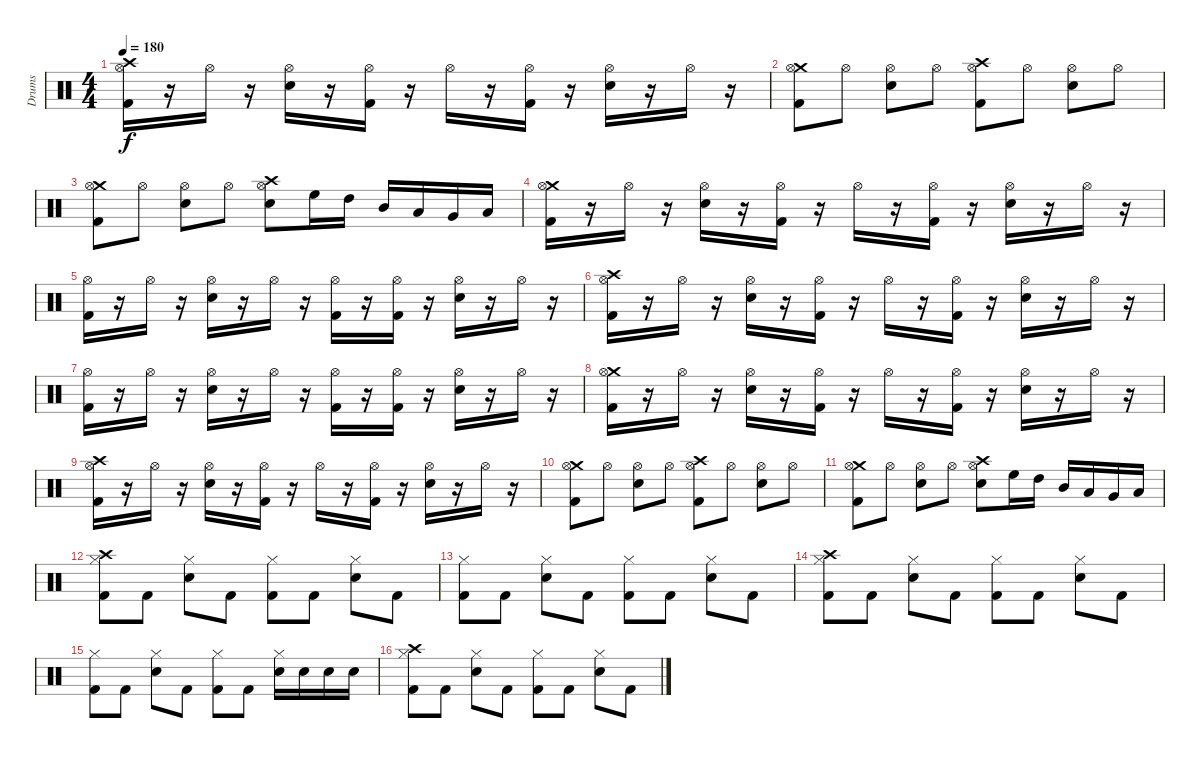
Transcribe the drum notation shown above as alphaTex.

\track ("Drums" "Drums") {instrument percussion}
\staff {score}
\articulation defaults
\ts (4 4)
\tempo 180
\clef neutral
\ks c
("Crash high (hit)" "Hi-Hat (open)" "Kick (hit) 2").16{dy f} r.16 "Hi-Hat (open)".16 r.16 ("Hi-Hat (open)" "Electric Snare (hit)").16 r.16 ("Hi-Hat (open)" "Kick (hit) 2").16 r.16 "Hi-Hat (open)".16 r.16 ("Hi-Hat (open)" "Kick (hit) 2").16 r.16 ("Hi-Hat (open)" "Electric Snare (hit)").16 r.16 "Hi-Hat (open)".16 r.16 |
("Crash medium (hit)" "Hi-Hat (open)" "Kick (hit) 2").8 "Hi-Hat (open)".8 ("Hi-Hat (open)" "Electric Snare (hit)").8 "Hi-Hat (open)".8 ("Crash high (hit)" "Hi-Hat (open)" "Kick (hit) 2").8 "Hi-Hat (open)".8 ("Hi-Hat (open)" "Electric Snare (hit)").8 "Hi-Hat (open)".8 |
("Crash medium (hit)" "Hi-Hat (open)" "Kick (hit) 2").8 "Hi-Hat (open)".8 ("Hi-Hat (open)" "Electric Snare (hit)").8 "Hi-Hat (open)".8 ("Crash high (hit)" "Hi-Hat (open)" "Electric Snare (hit)").8 "High Floor Tom (hit)".16 "High Tom (hit)".16 "Mid Tom (hit)".16 "Low Tom (hit)".16 "Very Low Tom (hit)".16 "Low Floor Tom (hit)".16 |
("Crash medium (hit)" "Hi-Hat (open)" "Kick (hit) 2").16 r.16 "Hi-Hat (open)".16 r.16 ("Hi-Hat (open)" "Electric Snare (hit)").16 r.16 ("Hi-Hat (open)" "Kick (hit) 2").16 r.16 "Hi-Hat (open)".16 r.16 ("Hi-Hat (open)" "Kick (hit) 2").16 r.16 ("Hi-Hat (open)" "Electric Snare (hit)").16 r.16 "Hi-Hat (open)".16 r.16 |
("Hi-Hat (open)" "Kick (hit) 2").16 r.16 "Hi-Hat (open)".16 r.16 ("Hi-Hat (open)" "Electric Snare (hit)").16 r.16 "Hi-Hat (open)".16 r.16 ("Hi-Hat (open)" "Kick (hit) 2").16 r.16 ("Hi-Hat (open)" "Kick (hit) 2").16 r.16 ("Hi-Hat (open)" "Electric Snare (hit)").16 r.16 "Hi-Hat (open)".16 r.16 |
("Crash high (hit)" "Hi-Hat (open)" "Kick (hit) 2").16 r.16 "Hi-Hat (open)".16 r.16 ("Hi-Hat (open)" "Electric Snare (hit)").16 r.16 ("Hi-Hat (open)" "Kick (hit) 2").16 r.16 "Hi-Hat (open)".16 r.16 ("Hi-Hat (open)" "Kick (hit) 2").16 r.16 ("Hi-Hat (open)" "Electric Snare (hit)").16 r.16 "Hi-Hat (open)".16 r.16 |
("Hi-Hat (open)" "Kick (hit) 2").16 r.16 "Hi-Hat (open)".16 r.16 ("Hi-Hat (open)" "Electric Snare (hit)").16 r.16 "Hi-Hat (open)".16 r.16 ("Hi-Hat (open)" "Kick (hit) 2").16 r.16 ("Hi-Hat (open)" "Kick (hit) 2").16 r.16 ("Hi-Hat (open)" "Electric Snare (hit)").16 r.16 "Hi-Hat (open)".16 r.16 |
("Crash medium (hit)" "Hi-Hat (open)" "Kick (hit) 2").16 r.16 "Hi-Hat (open)".16 r.16 ("Hi-Hat (open)" "Electric Snare (hit)").16 r.16 ("Hi-Hat (open)" "Kick (hit) 2").16 r.16 "Hi-Hat (open)".16 r.16 ("Hi-Hat (open)" "Kick (hit) 2").16 r.16 ("Hi-Hat (open)" "Electric Snare (hit)").16 r.16 "Hi-Hat (open)".16 r.16 |
("Crash high (hit)" "Hi-Hat (open)" "Kick (hit) 2").16 r.16 "Hi-Hat (open)".16 r.16 ("Hi-Hat (open)" "Electric Snare (hit)").16 r.16 ("Hi-Hat (open)" "Kick (hit) 2").16 r.16 "Hi-Hat (open)".16 r.16 ("Hi-Hat (open)" "Kick (hit) 2").16 r.16 ("Hi-Hat (open)" "Electric Snare (hit)").16 r.16 "Hi-Hat (open)".16 r.16 |
("Crash medium (hit)" "Hi-Hat (open)" "Kick (hit) 2").8 "Hi-Hat (open)".8 ("Hi-Hat (open)" "Electric Snare (hit)").8 "Hi-Hat (open)".8 ("Crash high (hit)" "Hi-Hat (open)" "Kick (hit) 2").8 "Hi-Hat (open)".8 ("Hi-Hat (open)" "Electric Snare (hit)").8 "Hi-Hat (open)".8 |
("Crash medium (hit)" "Hi-Hat (open)" "Kick (hit) 2").8 "Hi-Hat (open)".8 ("Hi-Hat (open)" "Electric Snare (hit)").8 "Hi-Hat (open)".8 ("Crash high (hit)" "Hi-Hat (open)" "Electric Snare (hit)").8 "High Floor Tom (hit)".16 "High Tom (hit)".16 "Mid Tom (hit)".16 "Low Tom (hit)".16 "Very Low Tom (hit)".16 "Low Floor Tom (hit)".16 |
("Crash high (hit)" "Hi-Hat (closed)" "Kick (hit) 2").8 "Kick (hit) 2".8 ("Hi-Hat (closed)" "Electric Snare (hit)").8 "Kick (hit) 2".8 ("Hi-Hat (closed)" "Kick (hit) 2").8 "Kick (hit) 2".8 ("Hi-Hat (closed)" "Electric Snare (hit)").8 "Kick (hit) 2".8 |
("Hi-Hat (closed)" "Kick (hit) 2").8 "Kick (hit) 2".8 ("Hi-Hat (closed)" "Electric Snare (hit)").8 "Kick (hit) 2".8 ("Hi-Hat (closed)" "Kick (hit) 2").8 "Kick (hit) 2".8 ("Hi-Hat (closed)" "Electric Snare (hit)").8 "Kick (hit) 2".8 |
("Crash high (hit)" "Hi-Hat (closed)" "Kick (hit) 2").8 "Kick (hit) 2".8 ("Hi-Hat (closed)" "Electric Snare (hit)").8 "Kick (hit) 2".8 ("Hi-Hat (closed)" "Kick (hit) 2").8 "Kick (hit) 2".8 ("Hi-Hat (closed)" "Electric Snare (hit)").8 "Kick (hit) 2".8 |
("Hi-Hat (closed)" "Kick (hit) 2").8 "Kick (hit) 2".8 ("Hi-Hat (closed)" "Electric Snare (hit)").8 "Kick (hit) 2".8 ("Hi-Hat (closed)" "Kick (hit) 2").8 "Kick (hit) 2".8 ("Hi-Hat (closed)" "Electric Snare (hit)").16 "Electric Snare (hit)".16 "Electric Snare (hit)".16 "Electric Snare (hit)".16 |
("Crash high (hit)" "Hi-Hat (closed)" "Kick (hit) 2").8 "Kick (hit) 2".8 ("Hi-Hat (closed)" "Electric Snare (hit)").8 "Kick (hit) 2".8 ("Hi-Hat (closed)" "Kick (hit) 2").8 "Kick (hit) 2".8 ("Hi-Hat (closed)" "Electric Snare (hit)").8 "Kick (hit) 2".8
